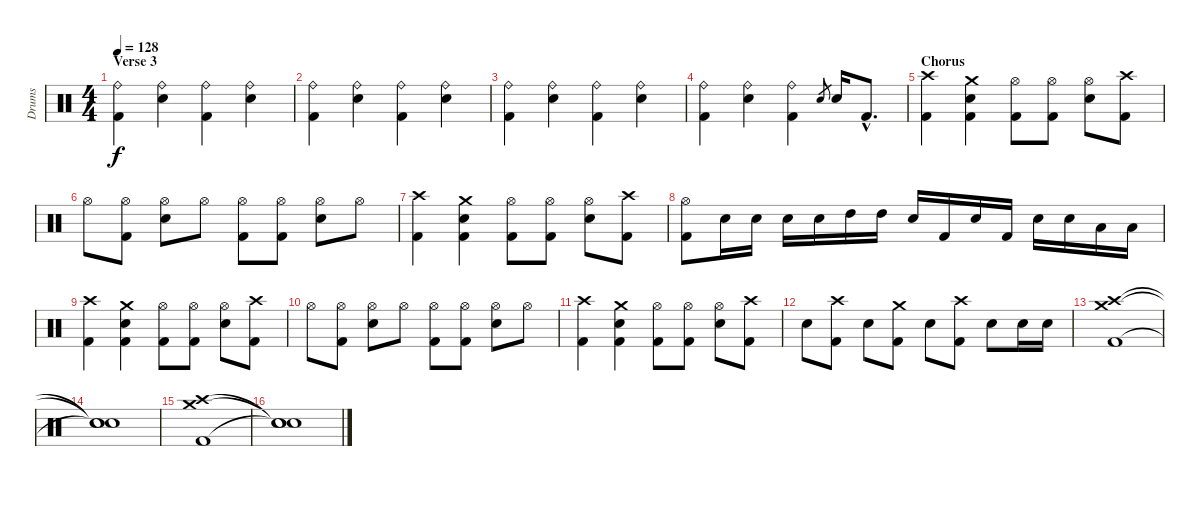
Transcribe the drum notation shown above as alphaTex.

\track ("Drums" "Drums") {instrument percussion}
\staff {score}
\articulation defaults
\ts (4 4)
\section ("" "Verse 3")
\tempo 128
\clef neutral
\ks c
("Ride (bell)" "Kick (hit) 2").4{dy f} ("Ride (bell)" "Electric Snare (hit)").4 ("Ride (bell)" "Kick (hit) 2").4 ("Ride (bell)" "Electric Snare (hit)").4 |
("Ride (bell)" "Kick (hit) 2").4 ("Ride (bell)" "Electric Snare (hit)").4 ("Ride (bell)" "Kick (hit) 2").4 ("Ride (bell)" "Electric Snare (hit)").4 |
("Ride (bell)" "Kick (hit) 2").4 ("Ride (bell)" "Electric Snare (hit)").4 ("Ride (bell)" "Kick (hit) 2").4 ("Ride (bell)" "Electric Snare (hit)").4 |
("Ride (bell)" "Kick (hit) 2").4 ("Ride (bell)" "Electric Snare (hit)").4 ("Ride (bell)" "Kick (hit) 2").4 "Electric Snare (hit)".8{gr} "Electric Snare (hit)".16 "Kick (hit) 2"{hac}.8{d} |
\section ("" "Chorus")
("Crash high (hit)" "Kick (hit) 2").4 ("Crash medium (hit)" "Electric Snare (hit)" "Kick (hit) 2").4 ("Hi-Hat (open)" "Kick (hit) 2").8 ("Hi-Hat (open)" "Kick (hit) 2").8 ("Hi-Hat (open)" "Electric Snare (hit)").8 ("Crash high (hit)" "Kick (hit) 2").8 |
"Hi-Hat (open)".8 ("Hi-Hat (open)" "Kick (hit) 2").8 ("Hi-Hat (open)" "Electric Snare (hit)").8 "Hi-Hat (open)".8 ("Hi-Hat (open)" "Kick (hit) 2").8 ("Hi-Hat (open)" "Kick (hit) 2").8 ("Hi-Hat (open)" "Electric Snare (hit)").8 "Hi-Hat (open)".8 |
("Crash high (hit)" "Kick (hit) 2").4 ("Crash medium (hit)" "Electric Snare (hit)" "Kick (hit) 2").4 ("Hi-Hat (open)" "Kick (hit) 2").8 ("Hi-Hat (open)" "Kick (hit) 2").8 ("Hi-Hat (open)" "Electric Snare (hit)").8 ("Crash high (hit)" "Kick (hit) 2").8 |
("Hi-Hat (open)" "Kick (hit) 2").8 "Electric Snare (hit)".16 "Electric Snare (hit)".16 "Electric Snare (hit)".16 "Electric Snare (hit)".16 "High Tom (hit)".16 "High Tom (hit)".16 "Electric Snare (hit)".16 "Kick (hit) 2".16 "Electric Snare (hit)".16 "Kick (hit) 2".16 "Electric Snare (hit)".16 "Electric Snare (hit)".16 "Low Tom (hit)".16 "Low Tom (hit)".16 |
("Crash high (hit)" "Kick (hit) 2").4 ("Crash medium (hit)" "Electric Snare (hit)" "Kick (hit) 2").4 ("Hi-Hat (open)" "Kick (hit) 2").8 ("Hi-Hat (open)" "Kick (hit) 2").8 ("Hi-Hat (open)" "Electric Snare (hit)").8 ("Crash high (hit)" "Kick (hit) 2").8 |
"Hi-Hat (open)".8 ("Hi-Hat (open)" "Kick (hit) 2").8 ("Hi-Hat (open)" "Electric Snare (hit)").8 "Hi-Hat (open)".8 ("Hi-Hat (open)" "Kick (hit) 2").8 ("Hi-Hat (open)" "Kick (hit) 2").8 ("Hi-Hat (open)" "Electric Snare (hit)").8 "Hi-Hat (open)".8 |
("Crash high (hit)" "Kick (hit) 2").4 ("Crash medium (hit)" "Electric Snare (hit)" "Kick (hit) 2").4 ("Hi-Hat (open)" "Kick (hit) 2").8 ("Hi-Hat (open)" "Kick (hit) 2").8 ("Hi-Hat (open)" "Electric Snare (hit)").8 ("Crash high (hit)" "Kick (hit) 2").8 |
"Electric Snare (hit)".8 ("Crash high (hit)" "Kick (hit) 2").8 "Electric Snare (hit)".8 ("Crash medium (hit)" "Kick (hit) 2").8 "Electric Snare (hit)".8 ("Crash high (hit)" "Kick (hit) 2").8 "Electric Snare (hit)".8 "Electric Snare (hit)".16 "Electric Snare (hit)".16 |
("Crash high (hit)" "Crash medium (hit)" "Kick (hit) 2").1 |
("Snare (hit)"{t} "Snare (hit)"{t} "Snare (hit)"{t}).1 |
("Crash high (hit)" "Crash medium (hit)" "Kick (hit) 2").1 |
("Snare (hit)"{t} "Snare (hit)"{t} "Snare (hit)"{t}).1
